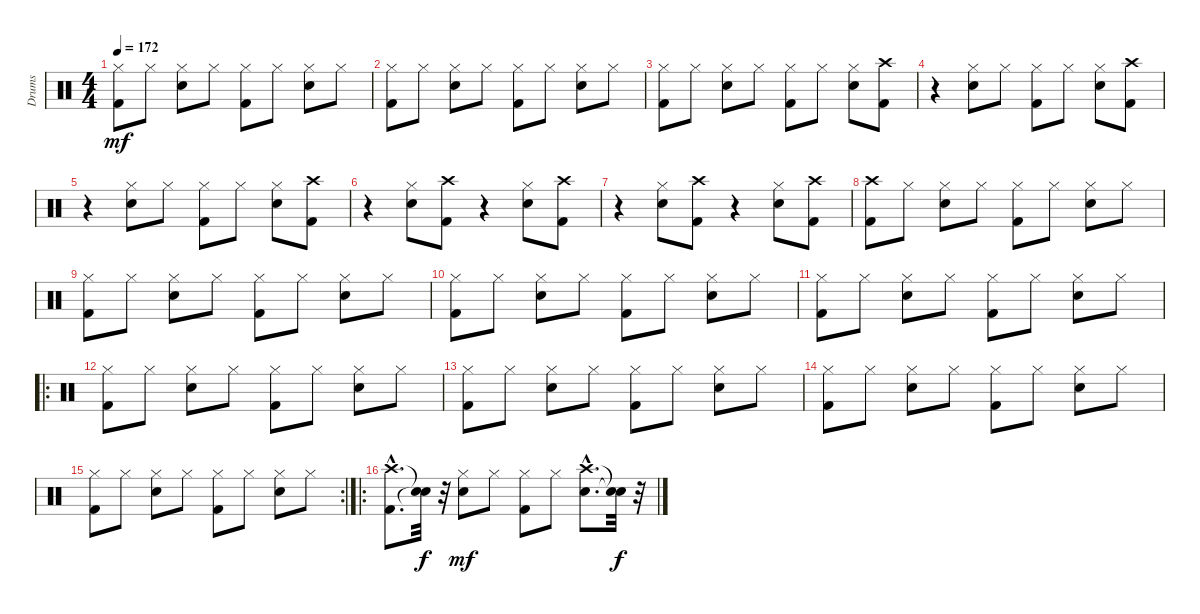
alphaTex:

\track ("Drums" "Drums") {instrument percussion}
\staff {score}
\articulation defaults
\ts (4 4)
\tempo 172
\clef neutral
\ks c
("Hi-Hat (closed)" "Kick (hit) 2").8{dy mf} "Hi-Hat (closed)".8 ("Hi-Hat (closed)" "Snare (hit) 2").8 "Hi-Hat (closed)".8 ("Hi-Hat (closed)" "Kick (hit) 2").8 "Hi-Hat (closed)".8 ("Hi-Hat (closed)" "Snare (hit) 2").8 "Hi-Hat (closed)".8 |
("Hi-Hat (closed)" "Kick (hit) 2").8 "Hi-Hat (closed)".8 ("Hi-Hat (closed)" "Snare (hit) 2").8 "Hi-Hat (closed)".8 ("Hi-Hat (closed)" "Kick (hit) 2").8 "Hi-Hat (closed)".8 ("Hi-Hat (closed)" "Snare (hit) 2").8 "Hi-Hat (closed)".8 |
("Kick (hit) 2" "Hi-Hat (closed)").8 "Hi-Hat (closed)".8 ("Snare (hit) 2" "Hi-Hat (closed)").8 "Hi-Hat (closed)".8 ("Kick (hit) 2" "Hi-Hat (closed)").8 "Hi-Hat (closed)".8 ("Snare (hit) 2" "Hi-Hat (closed)").8 ("Kick (hit) 2" "Crash high (hit)").8 |
r.4 ("Hi-Hat (closed)" "Snare (hit) 2").8 "Hi-Hat (closed)".8 ("Hi-Hat (closed)" "Kick (hit) 2").8 "Hi-Hat (closed)".8 ("Hi-Hat (closed)" "Snare (hit) 2").8 ("Crash high (hit)" "Kick (hit) 2").8 |
r.4 ("Hi-Hat (closed)" "Snare (hit) 2").8 "Hi-Hat (closed)".8 ("Hi-Hat (closed)" "Kick (hit) 2").8 "Hi-Hat (closed)".8 ("Hi-Hat (closed)" "Snare (hit) 2").8 ("Crash high (hit)" "Kick (hit) 2").8 |
r.4 ("Hi-Hat (closed)" "Snare (hit) 2").8 ("Kick (hit) 2" "Crash high (hit)").8 r.4 ("Snare (hit) 2" "Hi-Hat (closed)").8 ("Kick (hit) 2" "Crash high (hit)").8 |
r.4 ("Hi-Hat (closed)" "Snare (hit) 2").8 ("Kick (hit) 2" "Crash high (hit)").8 r.4 ("Hi-Hat (closed)" "Snare (hit) 2").8 ("Kick (hit) 2" "Crash high (hit)").8 |
("Crash high (hit)" "Kick (hit) 2").8 "Hi-Hat (closed)".8 ("Hi-Hat (closed)" "Snare (hit) 2").8 "Hi-Hat (closed)".8 ("Hi-Hat (closed)" "Kick (hit) 2").8 "Hi-Hat (closed)".8 ("Hi-Hat (closed)" "Snare (hit) 2").8 "Hi-Hat (closed)".8 |
("Hi-Hat (closed)" "Kick (hit) 2").8 "Hi-Hat (closed)".8 ("Hi-Hat (closed)" "Snare (hit) 2").8 "Hi-Hat (closed)".8 ("Hi-Hat (closed)" "Kick (hit) 2").8 "Hi-Hat (closed)".8 ("Hi-Hat (closed)" "Snare (hit) 2").8 "Hi-Hat (closed)".8 |
("Hi-Hat (closed)" "Kick (hit) 2").8 "Hi-Hat (closed)".8 ("Hi-Hat (closed)" "Snare (hit) 2").8 "Hi-Hat (closed)".8 ("Hi-Hat (closed)" "Kick (hit) 2").8 "Hi-Hat (closed)".8 ("Hi-Hat (closed)" "Snare (hit) 2").8 "Hi-Hat (closed)".8 |
("Hi-Hat (closed)" "Kick (hit) 2").8 "Hi-Hat (closed)".8 ("Hi-Hat (closed)" "Snare (hit) 2").8 "Hi-Hat (closed)".8 ("Hi-Hat (closed)" "Kick (hit) 2").8 "Hi-Hat (closed)".8 ("Hi-Hat (closed)" "Snare (hit) 2").8 "Hi-Hat (closed)".8 |
\ro
("Hi-Hat (closed)" "Kick (hit) 2").8 "Hi-Hat (closed)".8 ("Hi-Hat (closed)" "Snare (hit) 2").8 "Hi-Hat (closed)".8 ("Hi-Hat (closed)" "Kick (hit) 2").8 "Hi-Hat (closed)".8 ("Hi-Hat (closed)" "Snare (hit) 2").8 "Hi-Hat (closed)".8 |
("Kick (hit) 2" "Hi-Hat (closed)").8 "Hi-Hat (closed)".8 ("Snare (hit) 2" "Hi-Hat (closed)").8 "Hi-Hat (closed)".8 ("Kick (hit) 2" "Hi-Hat (closed)").8 "Hi-Hat (closed)".8 ("Snare (hit) 2" "Hi-Hat (closed)").8 "Hi-Hat (closed)".8 |
("Kick (hit) 2" "Hi-Hat (closed)").8 "Hi-Hat (closed)".8 ("Snare (hit) 2" "Hi-Hat (closed)").8 "Hi-Hat (closed)".8 ("Kick (hit) 2" "Hi-Hat (closed)").8 "Hi-Hat (closed)".8 ("Snare (hit) 2" "Hi-Hat (closed)").8 "Hi-Hat (closed)".8 |
\rc 2
("Kick (hit) 2" "Hi-Hat (closed)").8 "Hi-Hat (closed)".8 ("Snare (hit) 2" "Hi-Hat (closed)").8 "Hi-Hat (closed)".8 ("Kick (hit) 2" "Hi-Hat (closed)").8 "Hi-Hat (closed)".8 ("Snare (hit) 2" "Hi-Hat (closed)").8 "Hi-Hat (closed)".8 |
\ro
("Crash high (hit)"{hac} "Kick (hit) 2"{hac}).8{d} ("Snare (hit)"{t} "Snare (hit)"{t}).32{dy f} r.32 ("Snare (hit) 2" "Hi-Hat (closed)").8{dy mf} "Hi-Hat (closed)".8 ("Kick (hit) 2" "Hi-Hat (closed)").8 "Hi-Hat (closed)".8 ("Crash high (hit)"{hac} "Snare (hit) 2"{hac}).8{d} ("Snare (hit)"{t} "Snare (hit)"{t}).32{dy f} r.32
